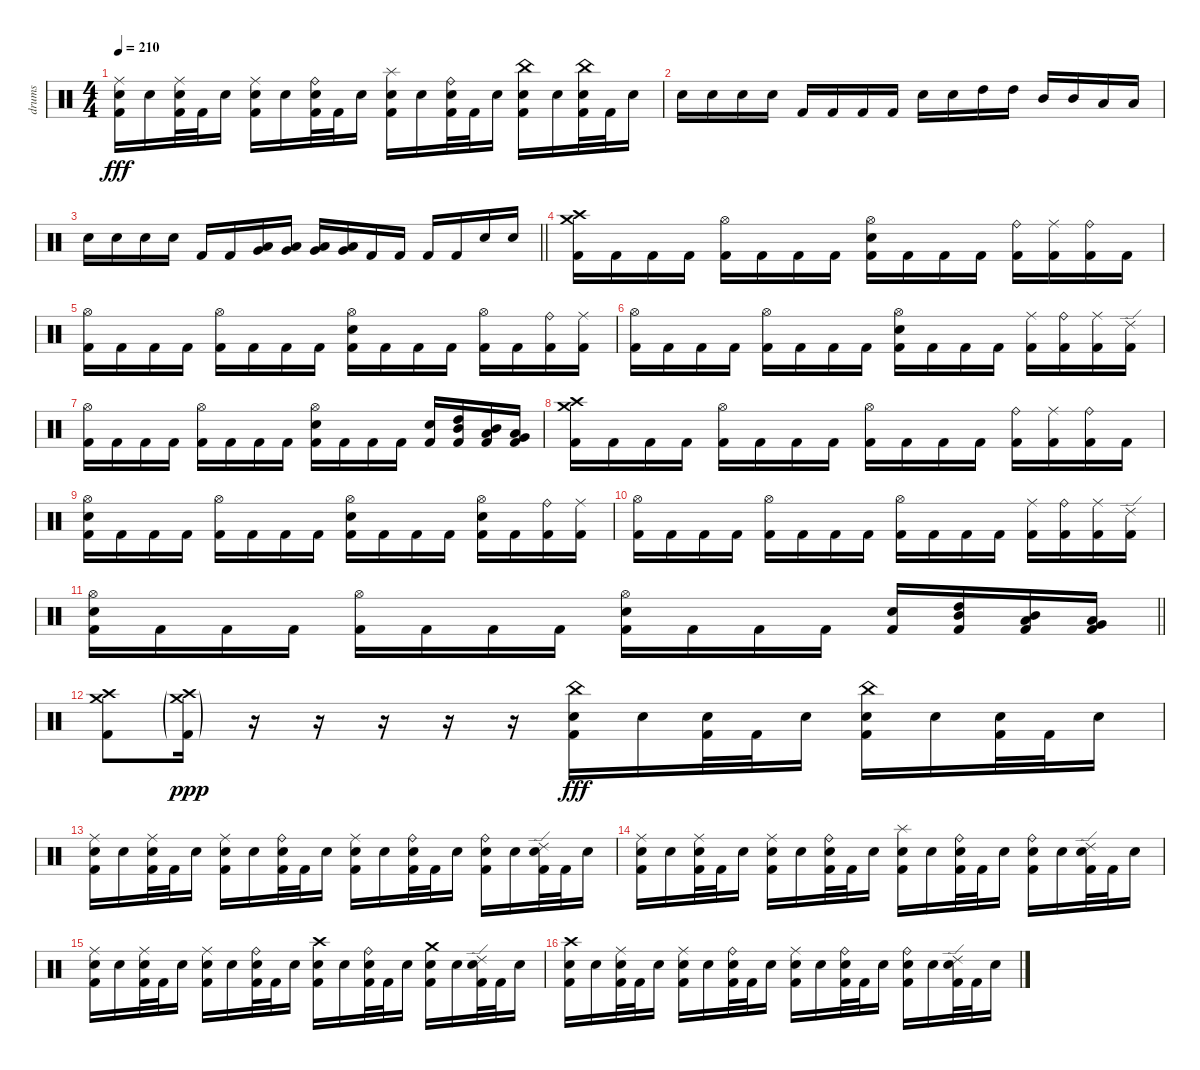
\track ("drums" "drums") {instrument percussion}
\staff {score}
\articulation defaults
\ts (4 4)
\tempo 210
\clef neutral
\ks c
("Ride (middle)" "Electric Snare (hit)" "Kick (hit) 2").16{dy fff} "Electric Snare (hit)".16 ("Ride (middle)" "Electric Snare (hit)" "Kick (hit) 2").32 "Kick (hit) 2".32 "Electric Snare (hit)".16 ("Ride (middle)" "Electric Snare (hit)" "Kick (hit) 2").16 "Electric Snare (hit)".16 ("Ride (bell)" "Electric Snare (hit)" "Kick (hit) 2").32 "Kick (hit) 2".32 "Electric Snare (hit)".16 ("Splash (hit)" "Electric Snare (hit)" "Kick (hit) 2").16 "Electric Snare (hit)".16 ("Ride (bell)" "Electric Snare (hit)" "Kick (hit) 2").32 "Kick (hit) 2".32 "Electric Snare (hit)".16 ("China (hit)" "Electric Snare (hit)" "Kick (hit) 2").16 "Electric Snare (hit)".16 ("China (hit)" "Electric Snare (hit)" "Kick (hit) 2").32 "Kick (hit) 2".32 "Electric Snare (hit)".16 |
"Electric Snare (hit)".16 "Electric Snare (hit)".16 "Electric Snare (hit)".16 "Electric Snare (hit)".16 "Kick (hit) 2".16 "Kick (hit) 2".16 "Kick (hit) 2".16 "Kick (hit) 2".16 "Electric Snare (hit)".16 "Electric Snare (hit)".16 "High Tom (hit)".16 "High Tom (hit)".16 "Mid Tom (hit)".16 "Mid Tom (hit)".16 "Low Tom (hit)".16 "Low Tom (hit)".16 |
\barLineRight lightlight "Electric Snare (hit)".16 "Electric Snare (hit)".16 "Electric Snare (hit)".16 "Electric Snare (hit)".16 "Kick (hit) 2".16 "Kick (hit) 2".16
("Low Tom (hit)" "Very Low Tom (hit)").16 ("Low Tom (hit)" "Very Low Tom (hit)").16 ("Very Low Tom (hit)" "Low Floor Tom (hit)").16 ("Very Low Tom (hit)" "Low Floor Tom (hit)").16 "Kick (hit) 2".16 "Kick (hit) 2".16 "Kick (hit) 2".16 "Kick (hit) 2".16 "Electric Snare (hit)".16 "Electric Snare (hit)".16 |
\section ("" "")
("Crash high (hit)" "Crash medium (hit)" "Kick (hit) 2").16 "Kick (hit) 2".16 "Kick (hit) 2".16 "Kick (hit) 2".16 ("Hi-Hat (open)" "Kick (hit) 2").16 "Kick (hit) 2".16 "Kick (hit) 2".16 "Kick (hit) 2".16 ("Hi-Hat (open)" "Electric Snare (hit)" "Kick (hit) 2").16 "Kick (hit) 2".16 "Kick (hit) 2".16 "Kick (hit) 2".16 ("Ride (bell)" "Kick (hit) 2").16 ("Ride (middle)" "Kick (hit) 2").16 ("Ride (bell)" "Kick (hit) 2").16 "Kick (hit) 2".16 |
("Hi-Hat (open)" "Kick (hit) 2").16 "Kick (hit) 2".16 "Kick (hit) 2".16 "Kick (hit) 2".16 ("Hi-Hat (open)" "Kick (hit) 2").16 "Kick (hit) 2".16 "Kick (hit) 2".16 "Kick (hit) 2".16 ("Hi-Hat (open)" "Electric Snare (hit)" "Kick (hit) 2").16 "Kick (hit) 2".16 "Kick (hit) 2".16 "Kick (hit) 2".16 ("Hi-Hat (open)" "Kick (hit) 2").16 "Kick (hit) 2".16 ("Ride (bell)" "Kick (hit) 2").16 ("Ride (middle)" "Kick (hit) 2").16 |
("Hi-Hat (open)" "Kick (hit) 2").16 "Kick (hit) 2".16 "Kick (hit) 2".16 "Kick (hit) 2".16 ("Hi-Hat (open)" "Kick (hit) 2").16 "Kick (hit) 2".16 "Kick (hit) 2".16 "Kick (hit) 2".16 ("Hi-Hat (open)" "Electric Snare (hit)" "Kick (hit) 2").16 "Kick (hit) 2".16 "Kick (hit) 2".16 "Kick (hit) 2".16 ("Ride (middle)" "Kick (hit) 2").16 ("Ride (bell)" "Kick (hit) 2").16 ("Ride (middle)" "Kick (hit) 2").16 ("Ride (edge) 2" "Kick (hit) 2").16 |
("Hi-Hat (open)" "Kick (hit) 2").16 "Kick (hit) 2".16 "Kick (hit) 2".16 "Kick (hit) 2".16 ("Hi-Hat (open)" "Kick (hit) 2").16 "Kick (hit) 2".16 "Kick (hit) 2".16 "Kick (hit) 2".16 ("Hi-Hat (open)" "Electric Snare (hit)" "Kick (hit) 2").16 "Kick (hit) 2".16 "Kick (hit) 2".16 "Kick (hit) 2".16 ("Electric Snare (hit)" "Kick (hit) 2").16 ("High Tom (hit)" "Mid Tom (hit)" "Kick (hit) 2").16 ("Mid Tom (hit)" "Low Tom (hit)" "Kick (hit) 2").16 ("Low Tom (hit)" "Very Low Tom (hit)" "Kick (hit) 2").16 |
("Crash high (hit)" "Crash medium (hit)" "Kick (hit) 2").16 "Kick (hit) 2".16 "Kick (hit) 2".16 "Kick (hit) 2".16 ("Hi-Hat (open)" "Kick (hit) 2").16 "Kick (hit) 2".16 "Kick (hit) 2".16 "Kick (hit) 2".16 ("Hi-Hat (open)" "Kick (hit) 2").16 "Kick (hit) 2".16 "Kick (hit) 2".16 "Kick (hit) 2".16 ("Ride (bell)" "Kick (hit) 2").16 ("Ride (middle)" "Kick (hit) 2").16 ("Ride (bell)" "Kick (hit) 2").16 "Kick (hit) 2".16 |
("Hi-Hat (open)" "Electric Snare (hit)" "Kick (hit) 2").16 "Kick (hit) 2".16 "Kick (hit) 2".16 "Kick (hit) 2".16 ("Hi-Hat (open)" "Kick (hit) 2").16 "Kick (hit) 2".16 "Kick (hit) 2".16 "Kick (hit) 2".16 ("Hi-Hat (open)" "Electric Snare (hit)" "Kick (hit) 2").16 "Kick (hit) 2".16 "Kick (hit) 2".16 "Kick (hit) 2".16 ("Hi-Hat (open)" "Electric Snare (hit)" "Kick (hit) 2").16 "Kick (hit) 2".16 ("Ride (bell)" "Kick (hit) 2").16 ("Ride (middle)" "Kick (hit) 2").16 |
("Hi-Hat (open)" "Kick (hit) 2").16 "Kick (hit) 2".16 "Kick (hit) 2".16 "Kick (hit) 2".16 ("Hi-Hat (open)" "Kick (hit) 2").16 "Kick (hit) 2".16 "Kick (hit) 2".16 "Kick (hit) 2".16 ("Hi-Hat (open)" "Kick (hit) 2").16 "Kick (hit) 2".16 "Kick (hit) 2".16 "Kick (hit) 2".16 ("Ride (middle)" "Kick (hit) 2").16 ("Ride (bell)" "Kick (hit) 2").16 ("Ride (middle)" "Kick (hit) 2").16 ("Ride (edge) 2" "Kick (hit) 2").16 |
\barLineRight lightlight
("Hi-Hat (open)" "Electric Snare (hit)" "Kick (hit) 2").16 "Kick (hit) 2".16 "Kick (hit) 2".16 "Kick (hit) 2".16 ("Hi-Hat (open)" "Kick (hit) 2").16 "Kick (hit) 2".16 "Kick (hit) 2".16 "Kick (hit) 2".16 ("Hi-Hat (open)" "Electric Snare (hit)" "Kick (hit) 2").16 "Kick (hit) 2".16 "Kick (hit) 2".16 "Kick (hit) 2".16 ("Electric Snare (hit)" "Kick (hit) 2").16 ("High Tom (hit)" "Mid Tom (hit)" "Kick (hit) 2").16 ("Mid Tom (hit)" "Low Tom (hit)" "Kick (hit) 2").16 ("Low Tom (hit)" "Very Low Tom (hit)" "Kick (hit) 2").16 |
\section ("" "")
("Crash high (hit)" "Crash medium (hit)" "Kick (hit) 2").8 ("Crash high (hit)"{g} "Crash medium (hit)"{g} "Kick (hit) 2"{g}).16{dy ppp} r.16 r.16 r.16 r.16 r.16 ("China (hit)" "Electric Snare (hit)" "Kick (hit) 2").16{dy fff} "Electric Snare (hit)".16 ("Electric Snare (hit)" "Kick (hit) 2").32 "Kick (hit) 2".32 "Electric Snare (hit)".16 ("China (hit)" "Electric Snare (hit)" "Kick (hit) 2").16 "Electric Snare (hit)".16 ("Electric Snare (hit)" "Kick (hit) 2").32 "Kick (hit) 2".32 "Electric Snare (hit)".16 |
("Ride (middle)" "Electric Snare (hit)" "Kick (hit) 2").16 "Electric Snare (hit)".16 ("Ride (middle)" "Electric Snare (hit)" "Kick (hit) 2").32 "Kick (hit) 2".32 "Electric Snare (hit)".16 ("Ride (middle)" "Electric Snare (hit)" "Kick (hit) 2").16 "Electric Snare (hit)".16 ("Ride (bell)" "Electric Snare (hit)" "Kick (hit) 2").32 "Kick (hit) 2".32 "Electric Snare (hit)".16 ("Ride (middle)" "Electric Snare (hit)" "Kick (hit) 2").16 "Electric Snare (hit)".16 ("Ride (bell)" "Electric Snare (hit)" "Kick (hit) 2").32 "Kick (hit) 2".32 "Electric Snare (hit)".16 ("Ride (bell)" "Electric Snare (hit)" "Kick (hit) 2").16 "Electric Snare (hit)".16 ("Ride (edge) 2" "Electric Snare (hit)" "Kick (hit) 2").32 "Kick (hit) 2".32 "Electric Snare (hit)".16 |
("Ride (middle)" "Electric Snare (hit)" "Kick (hit) 2").16 "Electric Snare (hit)".16 ("Ride (middle)" "Electric Snare (hit)" "Kick (hit) 2").32 "Kick (hit) 2".32 "Electric Snare (hit)".16 ("Ride (middle)" "Electric Snare (hit)" "Kick (hit) 2").16 "Electric Snare (hit)".16 ("Ride (bell)" "Electric Snare (hit)" "Kick (hit) 2").32 "Kick (hit) 2".32 "Electric Snare (hit)".16 ("Splash (hit)" "Electric Snare (hit)" "Kick (hit) 2").16 "Electric Snare (hit)".16 ("Ride (bell)" "Electric Snare (hit)" "Kick (hit) 2").32 "Kick (hit) 2".32 "Electric Snare (hit)".16 ("Ride (bell)" "Electric Snare (hit)" "Kick (hit) 2").16 "Electric Snare (hit)".16 ("Ride (edge) 2" "Electric Snare (hit)" "Kick (hit) 2").32 "Kick (hit) 2".32 "Electric Snare (hit)".16 |
("Ride (middle)" "Electric Snare (hit)" "Kick (hit) 2").16 "Electric Snare (hit)".16 ("Ride (middle)" "Electric Snare (hit)" "Kick (hit) 2").32 "Kick (hit) 2".32 "Electric Snare (hit)".16 ("Ride (middle)" "Electric Snare (hit)" "Kick (hit) 2").16 "Electric Snare (hit)".16 ("Ride (bell)" "Electric Snare (hit)" "Kick (hit) 2").32 "Kick (hit) 2".32 "Electric Snare (hit)".16 ("Crash high (hit)" "Electric Snare (hit)" "Kick (hit) 2").16 "Electric Snare (hit)".16 ("Ride (bell)" "Electric Snare (hit)" "Kick (hit) 2").32 "Kick (hit) 2".32 "Electric Snare (hit)".16 ("Crash medium (hit)" "Electric Snare (hit)" "Kick (hit) 2").16 "Electric Snare (hit)".16 ("Ride (edge) 2" "Electric Snare (hit)" "Kick (hit) 2").32 "Kick (hit) 2".32 "Electric Snare (hit)".16 |
("Crash high (hit)" "Electric Snare (hit)" "Kick (hit) 2").16 "Electric Snare (hit)".16 ("Ride (middle)" "Electric Snare (hit)" "Kick (hit) 2").32 "Kick (hit) 2".32 "Electric Snare (hit)".16 ("Ride (middle)" "Electric Snare (hit)" "Kick (hit) 2").16 "Electric Snare (hit)".16 ("Ride (bell)" "Electric Snare (hit)" "Kick (hit) 2").32 "Kick (hit) 2".32 "Electric Snare (hit)".16 ("Ride (middle)" "Electric Snare (hit)" "Kick (hit) 2").16 "Electric Snare (hit)".16 ("Ride (bell)" "Electric Snare (hit)" "Kick (hit) 2").32 "Kick (hit) 2".32 "Electric Snare (hit)".16 ("Ride (bell)" "Electric Snare (hit)" "Kick (hit) 2").16 "Electric Snare (hit)".16 ("Ride (edge) 2" "Electric Snare (hit)" "Kick (hit) 2").32 "Kick (hit) 2".32 "Electric Snare (hit)".16
